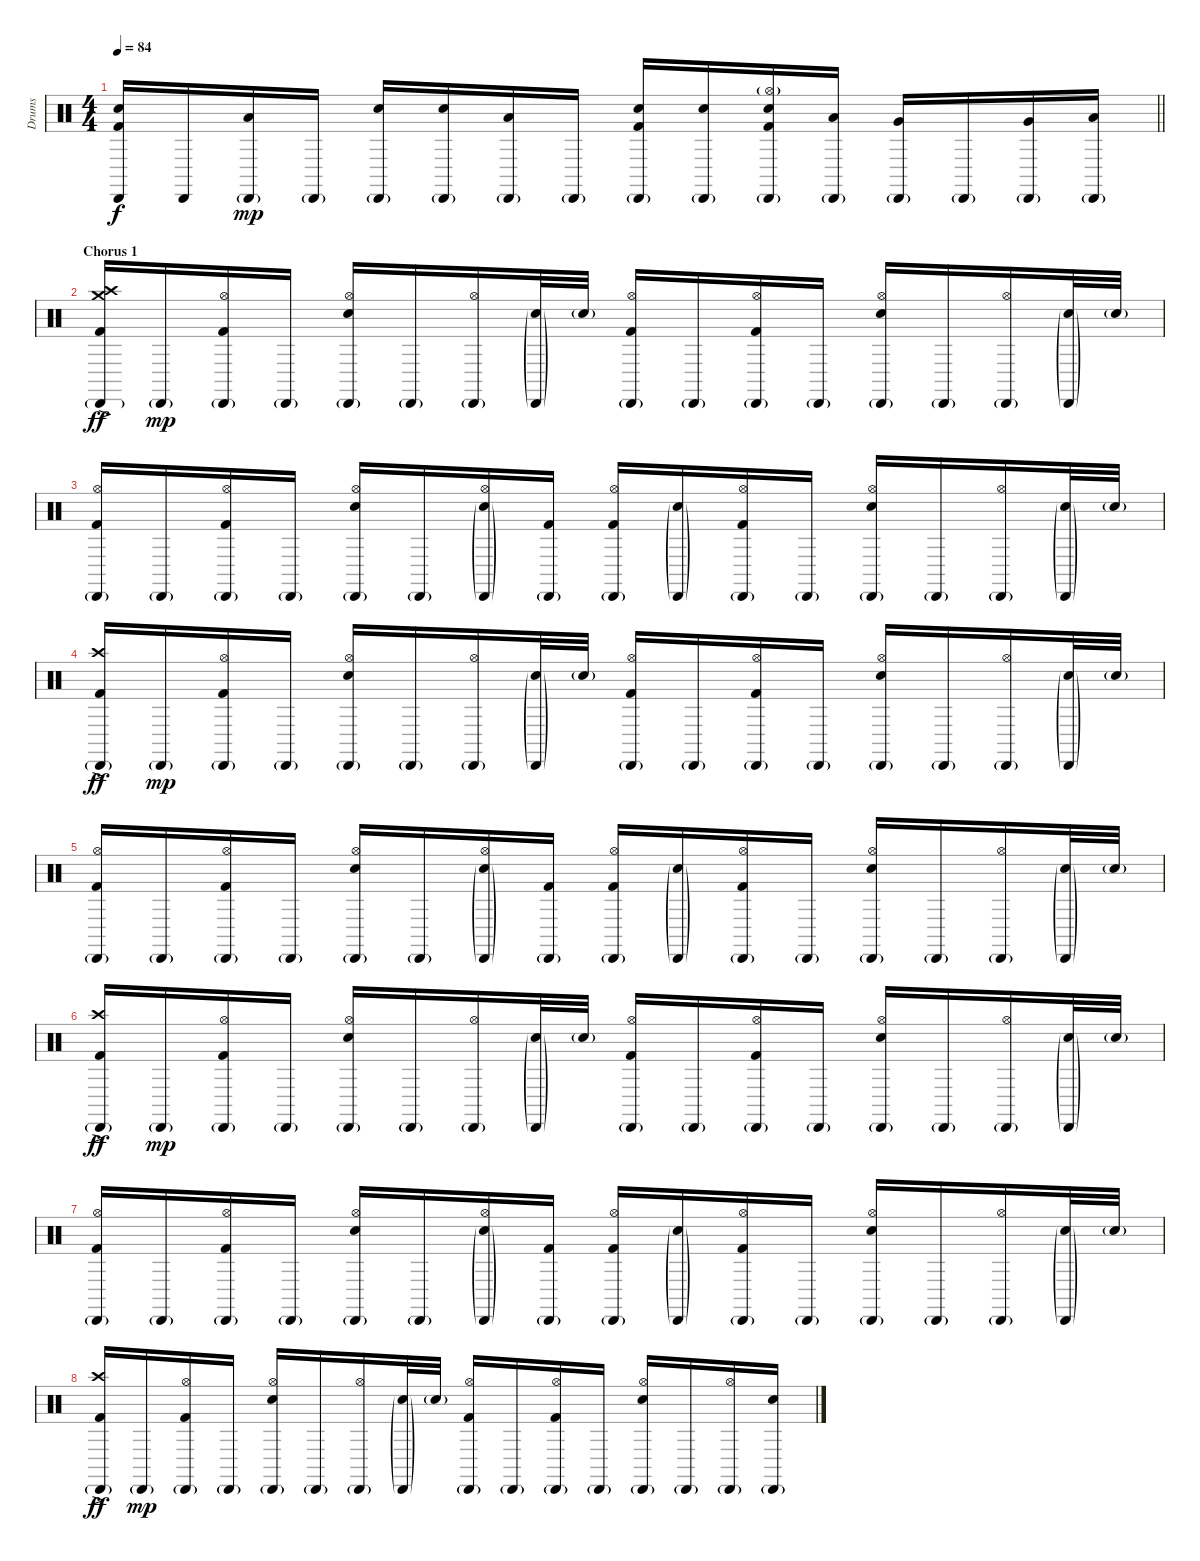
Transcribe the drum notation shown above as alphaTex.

\track ("Drums" "Drums") {instrument percussion}
\staff {score}
\articulation defaults
\ts (4 4)
\tempo 84
\clef neutral
\barLineRight lightlight
\ks c
("Cabasa (hit)" "Electric Snare (hit)" "Kick (hit) 2").16{dy f volume 15} "Cabasa (hit)".16 ("Cabasa (hit)"{g} "Low Tom (hit)").16{dy mp} "Cabasa (hit)"{g}.16 ("Cabasa (hit)"{g} "Electric Snare (hit)").16 ("Cabasa (hit)"{g} "Electric Snare (hit)").16 ("Cabasa (hit)"{g} "Low Tom (hit)").16 "Cabasa (hit)"{g}.16 ("Cabasa (hit)"{g} "Electric Snare (hit)" "Kick (hit) 2").16 ("Cabasa (hit)"{g} "Electric Snare (hit)").16 ("Hi-Hat (open)"{g} "Cabasa (hit)"{g} "Electric Snare (hit)" "Kick (hit) 2").16 ("Cabasa (hit)"{g} "Low Tom (hit)").16 ("Cabasa (hit)"{g} "Very Low Tom (hit)").16 "Cabasa (hit)"{g}.16 ("Cabasa (hit)"{g} "Very Low Tom (hit)").16 ("Cabasa (hit)"{g} "Low Floor Tom (hit)").16 |
\section ("" "Chorus 1")
("Crash high (hit)" "Crash medium (hit)" "Cabasa (hit)"{g} "Kick (hit) 2"{ac}).16{dy ff volume 13} "Cabasa (hit)"{g}.16{dy mp} ("Hi-Hat (open)" "Cabasa (hit)"{g} "Kick (hit) 2").16 "Cabasa (hit)"{g}.16 ("Hi-Hat (open)" "Cabasa (hit)"{g} "Electric Snare (hit)").16 "Cabasa (hit)"{g}.16 ("Hi-Hat (open)" "Cabasa (hit)"{g}).16 ("Cabasa (hit)"{g} "Electric Snare (hit)"{g}).32 "Electric Snare (hit)"{g}.32 ("Hi-Hat (open)" "Cabasa (hit)"{g} "Kick (hit) 2").16 "Cabasa (hit)"{g}.16 ("Hi-Hat (open)" "Cabasa (hit)"{g} "Kick (hit) 2").16 "Cabasa (hit)"{g}.16 ("Hi-Hat (open)" "Cabasa (hit)"{g} "Electric Snare (hit)").16 "Cabasa (hit)"{g}.16 ("Hi-Hat (open)" "Cabasa (hit)"{g}).16 ("Cabasa (hit)"{g} "Electric Snare (hit)"{g}).32 "Electric Snare (hit)"{g}.32 |
("Hi-Hat (open)" "Cabasa (hit)"{g} "Kick (hit) 2").16 "Cabasa (hit)"{g}.16 ("Hi-Hat (open)" "Cabasa (hit)"{g} "Kick (hit) 2").16 "Cabasa (hit)"{g}.16 ("Hi-Hat (open)" "Cabasa (hit)"{g} "Electric Snare (hit)").16 "Cabasa (hit)"{g}.16 ("Hi-Hat (open)" "Cabasa (hit)"{g} "Electric Snare (hit)"{g}).16 ("Cabasa (hit)"{g} "Kick (hit) 2").16 ("Hi-Hat (open)" "Cabasa (hit)"{g} "Kick (hit) 2").16 ("Cabasa (hit)"{g} "Electric Snare (hit)"{g}).16 ("Hi-Hat (open)" "Cabasa (hit)"{g} "Kick (hit) 2").16 "Cabasa (hit)"{g}.16 ("Hi-Hat (open)" "Cabasa (hit)"{g} "Electric Snare (hit)").16 "Cabasa (hit)"{g}.16 ("Hi-Hat (open)" "Cabasa (hit)"{g}).16 ("Cabasa (hit)"{g} "Electric Snare (hit)"{g}).32 "Electric Snare (hit)"{g}.32 |
("Crash high (hit)" "Cabasa (hit)"{g} "Kick (hit) 2"{ac}).16{dy ff} "Cabasa (hit)"{g}.16{dy mp} ("Hi-Hat (open)" "Cabasa (hit)"{g} "Kick (hit) 2").16 "Cabasa (hit)"{g}.16 ("Hi-Hat (open)" "Cabasa (hit)"{g} "Electric Snare (hit)").16 "Cabasa (hit)"{g}.16 ("Hi-Hat (open)" "Cabasa (hit)"{g}).16 ("Cabasa (hit)"{g} "Electric Snare (hit)"{g}).32 "Electric Snare (hit)"{g}.32 ("Hi-Hat (open)" "Cabasa (hit)"{g} "Kick (hit) 2").16 "Cabasa (hit)"{g}.16 ("Hi-Hat (open)" "Cabasa (hit)"{g} "Kick (hit) 2").16 "Cabasa (hit)"{g}.16 ("Hi-Hat (open)" "Cabasa (hit)"{g} "Electric Snare (hit)").16 "Cabasa (hit)"{g}.16 ("Hi-Hat (open)" "Cabasa (hit)"{g}).16 ("Cabasa (hit)"{g} "Electric Snare (hit)"{g}).32 "Electric Snare (hit)"{g}.32 |
("Hi-Hat (open)" "Cabasa (hit)"{g} "Kick (hit) 2").16 "Cabasa (hit)"{g}.16 ("Hi-Hat (open)" "Cabasa (hit)"{g} "Kick (hit) 2").16 "Cabasa (hit)"{g}.16 ("Hi-Hat (open)" "Cabasa (hit)"{g} "Electric Snare (hit)").16 "Cabasa (hit)"{g}.16 ("Hi-Hat (open)" "Cabasa (hit)"{g} "Electric Snare (hit)"{g}).16 ("Cabasa (hit)"{g} "Kick (hit) 2").16 ("Hi-Hat (open)" "Cabasa (hit)"{g} "Kick (hit) 2").16 ("Cabasa (hit)"{g} "Electric Snare (hit)"{g}).16 ("Hi-Hat (open)" "Cabasa (hit)"{g} "Kick (hit) 2").16 "Cabasa (hit)"{g}.16 ("Hi-Hat (open)" "Cabasa (hit)"{g} "Electric Snare (hit)").16 "Cabasa (hit)"{g}.16 ("Hi-Hat (open)" "Cabasa (hit)"{g}).16 ("Cabasa (hit)"{g} "Electric Snare (hit)"{g}).32 "Electric Snare (hit)"{g}.32 |
("Crash high (hit)" "Cabasa (hit)"{g} "Kick (hit) 2"{ac}).16{dy ff} "Cabasa (hit)"{g}.16{dy mp} ("Hi-Hat (open)" "Cabasa (hit)"{g} "Kick (hit) 2").16 "Cabasa (hit)"{g}.16 ("Hi-Hat (open)" "Cabasa (hit)"{g} "Electric Snare (hit)").16 "Cabasa (hit)"{g}.16 ("Hi-Hat (open)" "Cabasa (hit)"{g}).16 ("Cabasa (hit)"{g} "Electric Snare (hit)"{g}).32 "Electric Snare (hit)"{g}.32 ("Hi-Hat (open)" "Cabasa (hit)"{g} "Kick (hit) 2").16 "Cabasa (hit)"{g}.16 ("Hi-Hat (open)" "Cabasa (hit)"{g} "Kick (hit) 2").16 "Cabasa (hit)"{g}.16 ("Hi-Hat (open)" "Cabasa (hit)"{g} "Electric Snare (hit)").16 "Cabasa (hit)"{g}.16 ("Hi-Hat (open)" "Cabasa (hit)"{g}).16 ("Cabasa (hit)"{g} "Electric Snare (hit)"{g}).32 "Electric Snare (hit)"{g}.32 |
("Hi-Hat (open)" "Cabasa (hit)"{g} "Kick (hit) 2").16 "Cabasa (hit)"{g}.16 ("Hi-Hat (open)" "Cabasa (hit)"{g} "Kick (hit) 2").16 "Cabasa (hit)"{g}.16 ("Hi-Hat (open)" "Cabasa (hit)"{g} "Electric Snare (hit)").16 "Cabasa (hit)"{g}.16 ("Hi-Hat (open)" "Cabasa (hit)"{g} "Electric Snare (hit)"{g}).16 ("Cabasa (hit)"{g} "Kick (hit) 2").16 ("Hi-Hat (open)" "Cabasa (hit)"{g} "Kick (hit) 2").16 ("Cabasa (hit)"{g} "Electric Snare (hit)"{g}).16 ("Hi-Hat (open)" "Cabasa (hit)"{g} "Kick (hit) 2").16 "Cabasa (hit)"{g}.16 ("Hi-Hat (open)" "Cabasa (hit)"{g} "Electric Snare (hit)").16 "Cabasa (hit)"{g}.16 ("Hi-Hat (open)" "Cabasa (hit)"{g}).16 ("Cabasa (hit)"{g} "Electric Snare (hit)"{g}).32 "Electric Snare (hit)"{g}.32 |
("Crash high (hit)" "Cabasa (hit)"{g} "Kick (hit) 2"{ac}).16{dy ff} "Cabasa (hit)"{g}.16{dy mp} ("Hi-Hat (open)" "Cabasa (hit)"{g} "Kick (hit) 2").16 "Cabasa (hit)"{g}.16 ("Hi-Hat (open)" "Cabasa (hit)"{g} "Electric Snare (hit)").16 "Cabasa (hit)"{g}.16 ("Hi-Hat (open)" "Cabasa (hit)"{g}).16 ("Cabasa (hit)"{g} "Electric Snare (hit)"{g}).32 "Electric Snare (hit)"{g}.32 ("Hi-Hat (open)" "Cabasa (hit)"{g} "Kick (hit) 2").16{volume 16} "Cabasa (hit)"{g}.16 ("Hi-Hat (open)" "Cabasa (hit)"{g} "Kick (hit) 2").16 "Cabasa (hit)"{g}.16 ("Hi-Hat (open)" "Cabasa (hit)"{g} "Electric Snare (hit)").16 "Cabasa (hit)"{g}.16 ("Hi-Hat (open)" "Cabasa (hit)"{g}).16 ("Cabasa (hit)"{g} "Electric Snare (hit)").16
